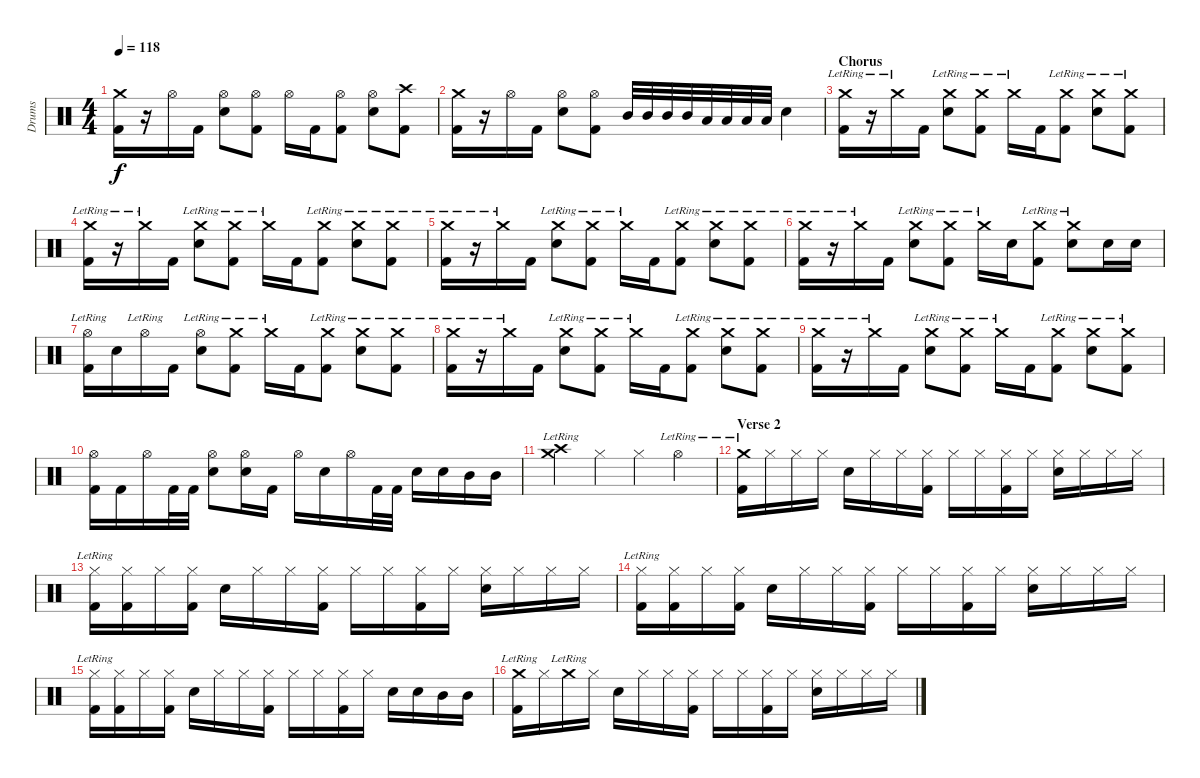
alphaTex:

\track ("Drums" "Drums") {instrument percussion}
\staff {score}
\articulation defaults
\ts (4 4)
\tempo 118
\clef neutral
\ks c
("Crash medium (hit)" "Kick (hit) 2").16{dy f} r.16 "Hi-Hat (open)".16 "Kick (hit) 2".16 ("Hi-Hat (open)" "Electric Snare (hit)").8 ("Hi-Hat (open)" "Kick (hit) 2").8 "Hi-Hat (open)".16 "Kick (hit) 2".16 ("Hi-Hat (open)" "Kick (hit) 2").8 ("Hi-Hat (open)" "Electric Snare (hit)").8 ("Crash high (hit)" "Kick (hit) 2").8 |
("Crash medium (hit)" "Kick (hit) 2").16 r.16 "Hi-Hat (open)".16 "Kick (hit) 2".16 ("Hi-Hat (open)" "Electric Snare (hit)").8 ("Hi-Hat (open)" "Kick (hit) 2").8 "Mid Tom (hit)".32 "Mid Tom (hit)".32 "Mid Tom (hit)".32 "Mid Tom (hit)".32 "Low Floor Tom (hit)".32 "Low Floor Tom (hit)".32 "Low Floor Tom (hit)".32 "Low Floor Tom (hit)".32 "Electric Snare (hit)".4 |
\section ("" "Chorus")
("Crash medium (hit)"{lr} "Kick (hit) 2").16 r.16 "Crash medium (hit)"{lr}.16 "Kick (hit) 2".16 ("Crash medium (hit)"{lr} "Electric Snare (hit)").8 ("Crash medium (hit)"{lr} "Kick (hit) 2").8 "Crash medium (hit)"{lr}.16 "Kick (hit) 2".16 ("Crash medium (hit)"{lr} "Kick (hit) 2").8 ("Crash medium (hit)"{lr} "Electric Snare (hit)").8 ("Crash medium (hit)"{lr} "Kick (hit) 2").8 |
("Crash medium (hit)"{lr} "Kick (hit) 2").16 r.16 "Crash medium (hit)"{lr}.16 "Kick (hit) 2".16 ("Crash medium (hit)"{lr} "Electric Snare (hit)").8 ("Crash medium (hit)"{lr} "Kick (hit) 2").8 "Crash medium (hit)"{lr}.16 "Kick (hit) 2".16 ("Crash medium (hit)"{lr} "Kick (hit) 2").8 ("Crash medium (hit)"{lr} "Electric Snare (hit)").8 ("Crash medium (hit)"{lr} "Kick (hit) 2").8 |
("Crash medium (hit)"{lr} "Kick (hit) 2").16 r.16 "Crash medium (hit)"{lr}.16 "Kick (hit) 2".16 ("Crash medium (hit)"{lr} "Electric Snare (hit)").8 ("Crash medium (hit)"{lr} "Kick (hit) 2").8 "Crash medium (hit)"{lr}.16 "Kick (hit) 2".16 ("Crash medium (hit)"{lr} "Kick (hit) 2").8 ("Crash medium (hit)"{lr} "Electric Snare (hit)").8 ("Crash medium (hit)"{lr} "Kick (hit) 2").8 |
("Crash medium (hit)"{lr} "Kick (hit) 2").16 r.16 "Crash medium (hit)"{lr}.16 "Kick (hit) 2".16 ("Crash medium (hit)"{lr} "Electric Snare (hit)").8 ("Crash medium (hit)"{lr} "Kick (hit) 2").8 "Crash medium (hit)"{lr}.16 "Electric Snare (hit)".16 ("Crash medium (hit)"{lr} "Kick (hit) 2").8 ("Crash medium (hit)"{lr} "Electric Snare (hit)").8 "Electric Snare (hit)".16 "Electric Snare (hit)".16 |
("Hi-Hat (open)"{lr} "Kick (hit) 2").16 "Electric Snare (hit)".16 "Hi-Hat (open)"{lr}.16 "Kick (hit) 2".16 ("Hi-Hat (open)"{lr} "Electric Snare (hit)").8 ("Crash medium (hit)"{lr} "Kick (hit) 2").8 "Crash medium (hit)"{lr}.16 "Kick (hit) 2".16 ("Crash medium (hit)"{lr} "Kick (hit) 2").8 ("Crash medium (hit)"{lr} "Electric Snare (hit)").8 ("Crash medium (hit)"{lr} "Kick (hit) 2").8 |
("Crash medium (hit)"{lr} "Kick (hit) 2").16 r.16 "Crash medium (hit)"{lr}.16 "Kick (hit) 2".16 ("Crash medium (hit)"{lr} "Electric Snare (hit)").8 ("Crash medium (hit)"{lr} "Kick (hit) 2").8 "Crash medium (hit)"{lr}.16 "Kick (hit) 2".16 ("Crash medium (hit)"{lr} "Kick (hit) 2").8 ("Crash medium (hit)"{lr} "Electric Snare (hit)").8 ("Crash medium (hit)"{lr} "Kick (hit) 2").8 |
("Crash medium (hit)"{lr} "Kick (hit) 2").16 r.16 "Crash medium (hit)"{lr}.16 "Kick (hit) 2".16 ("Crash medium (hit)"{lr} "Electric Snare (hit)").8 ("Crash medium (hit)"{lr} "Kick (hit) 2").8 "Crash medium (hit)"{lr}.16 "Kick (hit) 2".16 ("Crash medium (hit)"{lr} "Kick (hit) 2").8 ("Crash medium (hit)"{lr} "Electric Snare (hit)").8 ("Crash medium (hit)"{lr} "Kick (hit) 2").8 |
("Hi-Hat (open)" "Kick (hit) 2").16 "Kick (hit) 2".16 "Hi-Hat (open)".16 "Kick (hit) 2".32 "Kick (hit) 2".32 ("Hi-Hat (open)" "Electric Snare (hit)").8 ("Hi-Hat (open)" "Electric Snare (hit)").16 "Kick (hit) 2".16 "Hi-Hat (open)".16 "Electric Snare (hit)".16 "Hi-Hat (open)".16 "Kick (hit) 2".32 "Kick (hit) 2".32 "Electric Snare (hit)".16 "Electric Snare (hit)".16 "Mid Tom (hit)".16 "Mid Tom (hit)".16 |
("Crash medium (hit)"{lr} "Crash high (hit)"{lr}).4 "Hi-Hat (closed)".4 "Hi-Hat (closed)".4 "Hi-Hat (open)"{lr}.4 |
\section ("" "Verse 2")
("Crash medium (hit)"{lr} "Kick (hit) 2").16 "Hi-Hat (closed)".16 "Hi-Hat (closed)".16 "Hi-Hat (closed)".16 "Electric Snare (hit)".16 "Hi-Hat (closed)".16 "Hi-Hat (closed)".16 ("Hi-Hat (closed)" "Kick (hit) 2").16 "Hi-Hat (closed)".16 "Hi-Hat (closed)".16 ("Hi-Hat (closed)" "Kick (hit) 2").16 "Hi-Hat (closed)".16 ("Hi-Hat (closed)" "Electric Snare (hit)").16 "Hi-Hat (closed)".16 "Hi-Hat (closed)".16 "Hi-Hat (closed)".16 |
("Hi-Hat (closed)"{lr} "Kick (hit) 2").16 ("Hi-Hat (closed)" "Kick (hit) 2").16 "Hi-Hat (closed)".16 ("Hi-Hat (closed)" "Kick (hit) 2").16 "Electric Snare (hit)".16 "Hi-Hat (closed)".16 "Hi-Hat (closed)".16 ("Hi-Hat (closed)" "Kick (hit) 2").16 "Hi-Hat (closed)".16 "Hi-Hat (closed)".16 ("Hi-Hat (closed)" "Kick (hit) 2").16 "Hi-Hat (closed)".16 ("Hi-Hat (closed)" "Electric Snare (hit)").16 "Hi-Hat (closed)".16 "Hi-Hat (closed)".16 "Hi-Hat (closed)".16 |
("Hi-Hat (closed)"{lr} "Kick (hit) 2").16 ("Hi-Hat (closed)" "Kick (hit) 2").16 "Hi-Hat (closed)".16 ("Hi-Hat (closed)" "Kick (hit) 2").16 "Electric Snare (hit)".16 "Hi-Hat (closed)".16 "Hi-Hat (closed)".16 ("Hi-Hat (closed)" "Kick (hit) 2").16 "Hi-Hat (closed)".16 "Hi-Hat (closed)".16 ("Hi-Hat (closed)" "Kick (hit) 2").16 "Hi-Hat (closed)".16 ("Hi-Hat (closed)" "Electric Snare (hit)").16 "Hi-Hat (closed)".16 "Hi-Hat (closed)".16 "Hi-Hat (closed)".16 |
("Hi-Hat (closed)"{lr} "Kick (hit) 2").16 ("Hi-Hat (closed)" "Kick (hit) 2").16 "Hi-Hat (closed)".16 ("Hi-Hat (closed)" "Kick (hit) 2").16 "Electric Snare (hit)".16 "Hi-Hat (closed)".16 "Hi-Hat (closed)".16 ("Hi-Hat (closed)" "Kick (hit) 2").16 "Hi-Hat (closed)".16 "Hi-Hat (closed)".16 ("Hi-Hat (closed)" "Kick (hit) 2").16 "Hi-Hat (closed)".16 "Electric Snare (hit)".16 "Electric Snare (hit)".16 "Mid Tom (hit)".16 "Mid Tom (hit)".16 |
("Crash medium (hit)"{lr} "Kick (hit) 2").16 "Hi-Hat (closed)".16 "Crash medium (hit)"{lr}.16 "Hi-Hat (closed)".16 "Electric Snare (hit)".16 "Hi-Hat (closed)".16 "Hi-Hat (closed)".16 ("Hi-Hat (closed)" "Kick (hit) 2").16 "Hi-Hat (closed)".16 "Hi-Hat (closed)".16 ("Hi-Hat (closed)" "Kick (hit) 2").16 "Hi-Hat (closed)".16 ("Hi-Hat (closed)" "Electric Snare (hit)").16 "Hi-Hat (closed)".16 "Hi-Hat (closed)".16 "Hi-Hat (closed)".16
